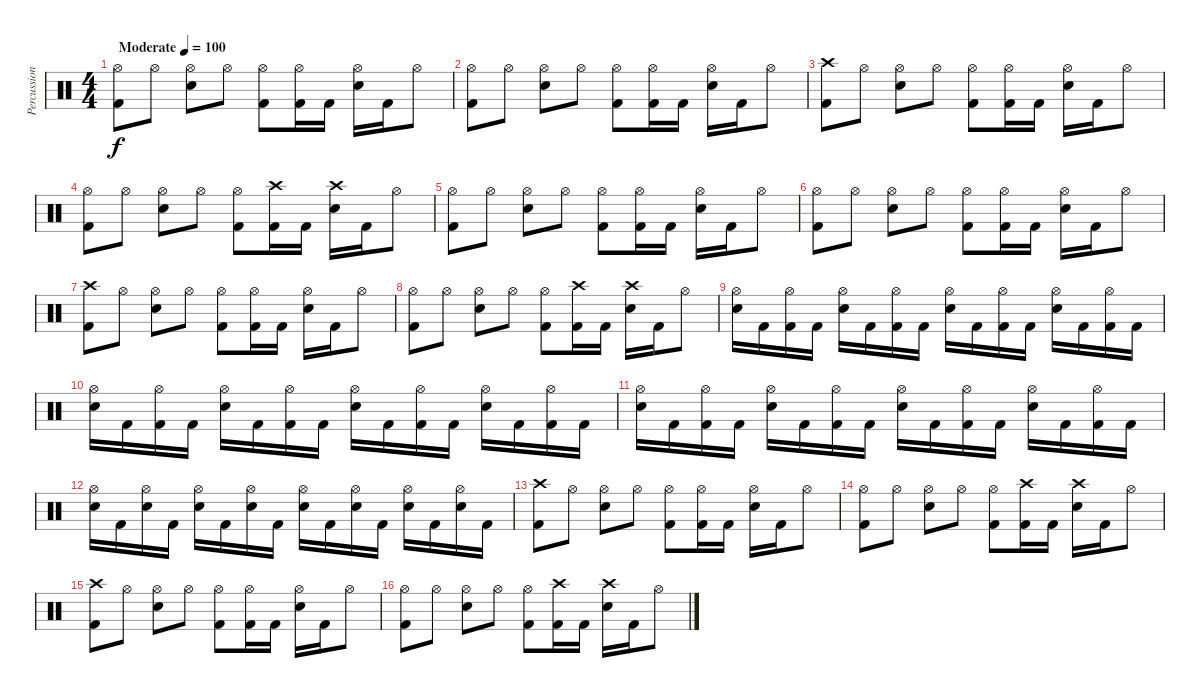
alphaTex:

\track ("Percussion" "Percussion") {instrument percussion}
\staff {score}
\articulation defaults
\ts (4 4)
\tempo (100 "Moderate")
\clef neutral
\ks c
("Hi-Hat (open)" "Kick (hit) 2").8{dy f} "Hi-Hat (open)".8 ("Hi-Hat (open)" "Electric Snare (hit)").8 "Hi-Hat (open)".8 ("Hi-Hat (open)" "Kick (hit) 2").8 ("Hi-Hat (open)" "Kick (hit) 2").16 "Kick (hit) 2".16 ("Hi-Hat (open)" "Electric Snare (hit)").16 "Kick (hit) 2".16 "Hi-Hat (open)".8 |
("Hi-Hat (open)" "Kick (hit) 2").8 "Hi-Hat (open)".8 ("Hi-Hat (open)" "Electric Snare (hit)").8 "Hi-Hat (open)".8 ("Hi-Hat (open)" "Kick (hit) 2").8 ("Hi-Hat (open)" "Kick (hit) 2").16 "Kick (hit) 2".16 ("Hi-Hat (open)" "Electric Snare (hit)").16 "Kick (hit) 2".16 "Hi-Hat (open)".8 |
("Crash high (hit)" "Kick (hit) 2").8 "Hi-Hat (open)".8 ("Hi-Hat (open)" "Electric Snare (hit)").8 "Hi-Hat (open)".8 ("Hi-Hat (open)" "Kick (hit) 2").8 ("Hi-Hat (open)" "Kick (hit) 2").16 "Kick (hit) 2".16 ("Hi-Hat (open)" "Electric Snare (hit)").16 "Kick (hit) 2".16 "Hi-Hat (open)".8 |
("Hi-Hat (open)" "Kick (hit) 2").8 "Hi-Hat (open)".8 ("Hi-Hat (open)" "Electric Snare (hit)").8 "Hi-Hat (open)".8 ("Hi-Hat (open)" "Kick (hit) 2").8 ("Crash high (hit)" "Kick (hit) 2").16 "Kick (hit) 2".16 ("Crash high (hit)" "Electric Snare (hit)").16 "Kick (hit) 2".16 "Hi-Hat (open)".8 |
("Hi-Hat (open)" "Kick (hit) 2").8 "Hi-Hat (open)".8 ("Hi-Hat (open)" "Electric Snare (hit)").8 "Hi-Hat (open)".8 ("Hi-Hat (open)" "Kick (hit) 2").8 ("Hi-Hat (open)" "Kick (hit) 2").16 "Kick (hit) 2".16 ("Hi-Hat (open)" "Electric Snare (hit)").16 "Kick (hit) 2".16 "Hi-Hat (open)".8 |
("Hi-Hat (open)" "Kick (hit) 2").8 "Hi-Hat (open)".8 ("Hi-Hat (open)" "Electric Snare (hit)").8 "Hi-Hat (open)".8 ("Hi-Hat (open)" "Kick (hit) 2").8 ("Hi-Hat (open)" "Kick (hit) 2").16 "Kick (hit) 2".16 ("Hi-Hat (open)" "Electric Snare (hit)").16 "Kick (hit) 2".16 "Hi-Hat (open)".8 |
("Crash high (hit)" "Kick (hit) 2").8 "Hi-Hat (open)".8 ("Hi-Hat (open)" "Electric Snare (hit)").8 "Hi-Hat (open)".8 ("Hi-Hat (open)" "Kick (hit) 2").8 ("Hi-Hat (open)" "Kick (hit) 2").16 "Kick (hit) 2".16 ("Hi-Hat (open)" "Electric Snare (hit)").16 "Kick (hit) 2".16 "Hi-Hat (open)".8 |
("Hi-Hat (open)" "Kick (hit) 2").8 "Hi-Hat (open)".8 ("Hi-Hat (open)" "Electric Snare (hit)").8 "Hi-Hat (open)".8 ("Hi-Hat (open)" "Kick (hit) 2").8 ("Crash high (hit)" "Kick (hit) 2").16 "Kick (hit) 2".16 ("Crash high (hit)" "Electric Snare (hit)").16 "Kick (hit) 2".16 "Hi-Hat (open)".8 |
("Electric Snare (hit)" "Hi-Hat (open)").16 "Kick (hit) 2".16 ("Kick (hit) 2" "Hi-Hat (open)").16 "Kick (hit) 2".16 ("Electric Snare (hit)" "Hi-Hat (open)").16 "Kick (hit) 2".16 ("Kick (hit) 2" "Hi-Hat (open)").16 "Kick (hit) 2".16 ("Electric Snare (hit)" "Hi-Hat (open)").16 "Kick (hit) 2".16 ("Kick (hit) 2" "Hi-Hat (open)").16 "Kick (hit) 2".16 ("Electric Snare (hit)" "Hi-Hat (open)").16 "Kick (hit) 2".16 ("Kick (hit) 2" "Hi-Hat (open)").16 "Kick (hit) 2".16 |
("Electric Snare (hit)" "Hi-Hat (open)").16 "Kick (hit) 2".16 ("Kick (hit) 2" "Hi-Hat (open)").16 "Kick (hit) 2".16 ("Electric Snare (hit)" "Hi-Hat (open)").16 "Kick (hit) 2".16 ("Kick (hit) 2" "Hi-Hat (open)").16 "Kick (hit) 2".16 ("Electric Snare (hit)" "Hi-Hat (open)").16 "Kick (hit) 2".16 ("Kick (hit) 2" "Hi-Hat (open)").16 "Kick (hit) 2".16 ("Electric Snare (hit)" "Hi-Hat (open)").16 "Kick (hit) 2".16 ("Kick (hit) 2" "Hi-Hat (open)").16 "Kick (hit) 2".16 |
("Electric Snare (hit)" "Hi-Hat (open)").16 "Kick (hit) 2".16 ("Kick (hit) 2" "Hi-Hat (open)").16 "Kick (hit) 2".16 ("Electric Snare (hit)" "Hi-Hat (open)").16 "Kick (hit) 2".16 ("Kick (hit) 2" "Hi-Hat (open)").16 "Kick (hit) 2".16 ("Electric Snare (hit)" "Hi-Hat (open)").16 "Kick (hit) 2".16 ("Kick (hit) 2" "Hi-Hat (open)").16 "Kick (hit) 2".16 ("Electric Snare (hit)" "Hi-Hat (open)").16 "Kick (hit) 2".16 ("Kick (hit) 2" "Hi-Hat (open)").16 "Kick (hit) 2".16 |
("Electric Snare (hit)" "Hi-Hat (open)").16 "Kick (hit) 2".16 ("Electric Snare (hit)" "Hi-Hat (open)").16 "Kick (hit) 2".16 ("Electric Snare (hit)" "Hi-Hat (open)").16 "Kick (hit) 2".16 ("Electric Snare (hit)" "Hi-Hat (open)").16 "Kick (hit) 2".16 ("Electric Snare (hit)" "Hi-Hat (open)").16 "Kick (hit) 2".16 ("Electric Snare (hit)" "Hi-Hat (open)").16 "Kick (hit) 2".16 ("Electric Snare (hit)" "Hi-Hat (open)").16 "Kick (hit) 2".16 ("Electric Snare (hit)" "Hi-Hat (open)").16 "Kick (hit) 2".16 |
("Crash high (hit)" "Kick (hit) 2").8 "Hi-Hat (open)".8 ("Hi-Hat (open)" "Electric Snare (hit)").8 "Hi-Hat (open)".8 ("Hi-Hat (open)" "Kick (hit) 2").8 ("Hi-Hat (open)" "Kick (hit) 2").16 "Kick (hit) 2".16 ("Hi-Hat (open)" "Electric Snare (hit)").16 "Kick (hit) 2".16 "Hi-Hat (open)".8 |
("Hi-Hat (open)" "Kick (hit) 2").8 "Hi-Hat (open)".8 ("Hi-Hat (open)" "Electric Snare (hit)").8 "Hi-Hat (open)".8 ("Hi-Hat (open)" "Kick (hit) 2").8 ("Crash high (hit)" "Kick (hit) 2").16 "Kick (hit) 2".16 ("Crash high (hit)" "Electric Snare (hit)").16 "Kick (hit) 2".16 "Hi-Hat (open)".8 |
("Crash high (hit)" "Kick (hit) 2").8 "Hi-Hat (open)".8 ("Hi-Hat (open)" "Electric Snare (hit)").8 "Hi-Hat (open)".8 ("Hi-Hat (open)" "Kick (hit) 2").8 ("Hi-Hat (open)" "Kick (hit) 2").16 "Kick (hit) 2".16 ("Hi-Hat (open)" "Electric Snare (hit)").16 "Kick (hit) 2".16 "Hi-Hat (open)".8 |
("Hi-Hat (open)" "Kick (hit) 2").8 "Hi-Hat (open)".8 ("Hi-Hat (open)" "Electric Snare (hit)").8 "Hi-Hat (open)".8 ("Hi-Hat (open)" "Kick (hit) 2").8 ("Crash high (hit)" "Kick (hit) 2").16 "Kick (hit) 2".16 ("Crash high (hit)" "Electric Snare (hit)").16 "Kick (hit) 2".16 "Hi-Hat (open)".8
